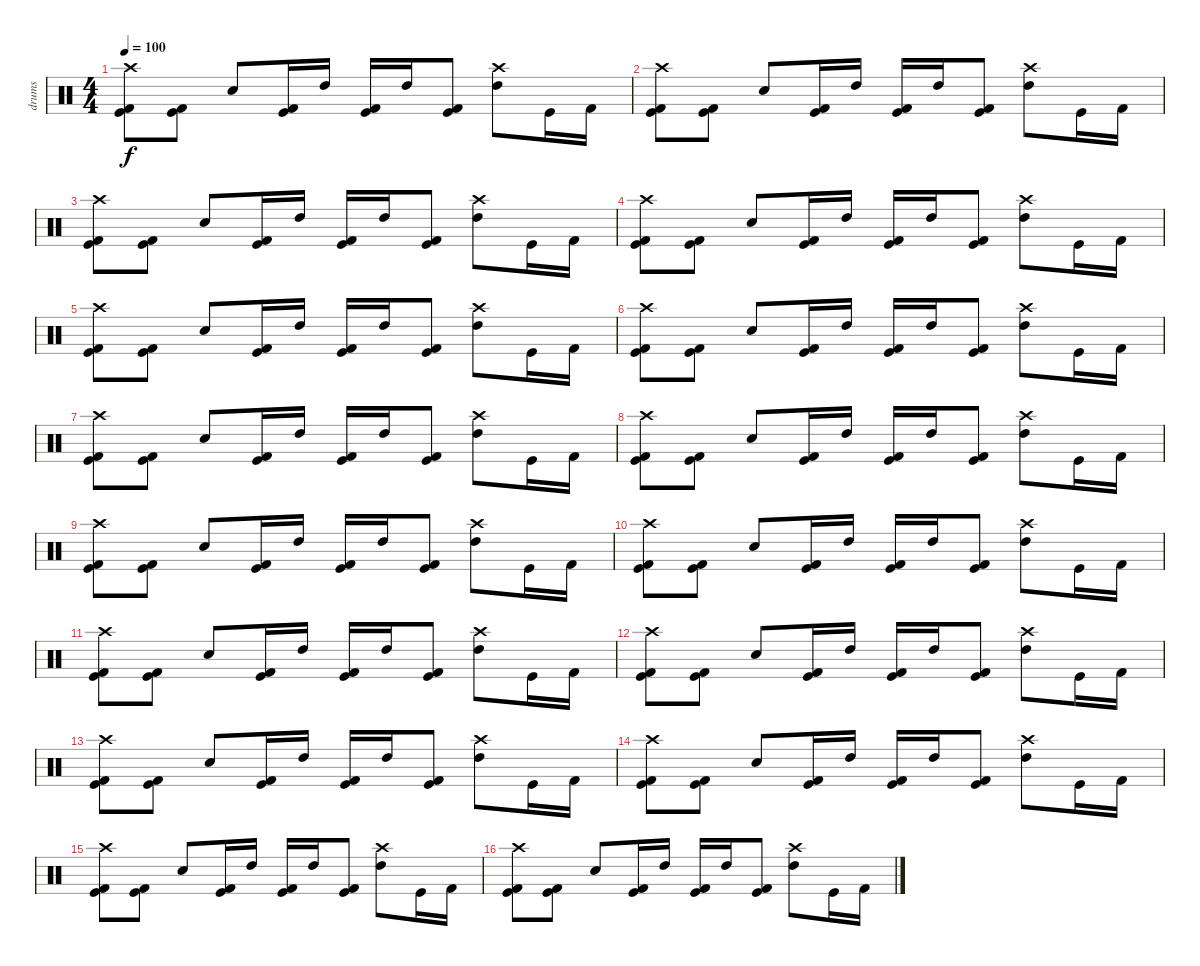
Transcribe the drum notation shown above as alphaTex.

\track ("drums" "drums") {instrument percussion}
\staff {score}
\articulation defaults
\ts (4 4)
\tempo 100
\clef neutral
\ks c
("Kick (hit) 2" "Kick (hit)" "Crash high (hit)").8{dy f} ("Kick (hit) 2" "Kick (hit)").8 "Snare (hit) 2".8 ("Kick (hit) 2" "Kick (hit)").16 "High Tom (hit)".16 ("Kick (hit) 2" "Kick (hit)").16 "High Tom (hit)".16 ("Kick (hit) 2" "Kick (hit)").8 ("High Tom (hit)" "Crash high (hit)").8 "Kick (hit)".16 "Kick (hit) 2".16 |
("Kick (hit) 2" "Kick (hit)" "Crash high (hit)").8 ("Kick (hit) 2" "Kick (hit)").8 "Snare (hit) 2".8 ("Kick (hit) 2" "Kick (hit)").16 "High Tom (hit)".16 ("Kick (hit) 2" "Kick (hit)").16 "High Tom (hit)".16 ("Kick (hit) 2" "Kick (hit)").8 ("High Tom (hit)" "Crash high (hit)").8 "Kick (hit)".16 "Kick (hit) 2".16 |
("Kick (hit) 2" "Kick (hit)" "Crash high (hit)").8 ("Kick (hit) 2" "Kick (hit)").8 "Snare (hit) 2".8 ("Kick (hit) 2" "Kick (hit)").16 "High Tom (hit)".16 ("Kick (hit) 2" "Kick (hit)").16 "High Tom (hit)".16 ("Kick (hit) 2" "Kick (hit)").8 ("High Tom (hit)" "Crash high (hit)").8 "Kick (hit)".16 "Kick (hit) 2".16 |
("Kick (hit) 2" "Kick (hit)" "Crash high (hit)").8 ("Kick (hit) 2" "Kick (hit)").8 "Snare (hit) 2".8 ("Kick (hit) 2" "Kick (hit)").16 "High Tom (hit)".16 ("Kick (hit) 2" "Kick (hit)").16 "High Tom (hit)".16 ("Kick (hit) 2" "Kick (hit)").8 ("High Tom (hit)" "Crash high (hit)").8 "Kick (hit)".16 "Kick (hit) 2".16 |
("Kick (hit) 2" "Kick (hit)" "Crash high (hit)").8 ("Kick (hit) 2" "Kick (hit)").8 "Snare (hit) 2".8 ("Kick (hit) 2" "Kick (hit)").16 "High Tom (hit)".16 ("Kick (hit) 2" "Kick (hit)").16 "High Tom (hit)".16 ("Kick (hit) 2" "Kick (hit)").8 ("High Tom (hit)" "Crash high (hit)").8 "Kick (hit)".16 "Kick (hit) 2".16 |
("Kick (hit) 2" "Kick (hit)" "Crash high (hit)").8 ("Kick (hit) 2" "Kick (hit)").8 "Snare (hit) 2".8 ("Kick (hit) 2" "Kick (hit)").16 "High Tom (hit)".16 ("Kick (hit) 2" "Kick (hit)").16 "High Tom (hit)".16 ("Kick (hit) 2" "Kick (hit)").8 ("High Tom (hit)" "Crash high (hit)").8 "Kick (hit)".16 "Kick (hit) 2".16 |
("Kick (hit) 2" "Kick (hit)" "Crash high (hit)").8 ("Kick (hit) 2" "Kick (hit)").8 "Snare (hit) 2".8 ("Kick (hit) 2" "Kick (hit)").16 "High Tom (hit)".16 ("Kick (hit) 2" "Kick (hit)").16 "High Tom (hit)".16 ("Kick (hit) 2" "Kick (hit)").8 ("High Tom (hit)" "Crash high (hit)").8 "Kick (hit)".16 "Kick (hit) 2".16 |
("Kick (hit) 2" "Kick (hit)" "Crash high (hit)").8 ("Kick (hit) 2" "Kick (hit)").8 "Snare (hit) 2".8 ("Kick (hit) 2" "Kick (hit)").16 "High Tom (hit)".16 ("Kick (hit) 2" "Kick (hit)").16 "High Tom (hit)".16 ("Kick (hit) 2" "Kick (hit)").8 ("High Tom (hit)" "Crash high (hit)").8 "Kick (hit)".16 "Kick (hit) 2".16 |
("Kick (hit) 2" "Kick (hit)" "Crash high (hit)").8 ("Kick (hit) 2" "Kick (hit)").8 "Snare (hit) 2".8 ("Kick (hit) 2" "Kick (hit)").16 "High Tom (hit)".16 ("Kick (hit) 2" "Kick (hit)").16 "High Tom (hit)".16 ("Kick (hit) 2" "Kick (hit)").8 ("High Tom (hit)" "Crash high (hit)").8 "Kick (hit)".16 "Kick (hit) 2".16 |
("Kick (hit) 2" "Kick (hit)" "Crash high (hit)").8 ("Kick (hit) 2" "Kick (hit)").8 "Snare (hit) 2".8 ("Kick (hit) 2" "Kick (hit)").16 "High Tom (hit)".16 ("Kick (hit) 2" "Kick (hit)").16 "High Tom (hit)".16 ("Kick (hit) 2" "Kick (hit)").8 ("High Tom (hit)" "Crash high (hit)").8 "Kick (hit)".16 "Kick (hit) 2".16 |
("Kick (hit) 2" "Kick (hit)" "Crash high (hit)").8 ("Kick (hit) 2" "Kick (hit)").8 "Snare (hit) 2".8 ("Kick (hit) 2" "Kick (hit)").16 "High Tom (hit)".16 ("Kick (hit) 2" "Kick (hit)").16 "High Tom (hit)".16 ("Kick (hit) 2" "Kick (hit)").8 ("High Tom (hit)" "Crash high (hit)").8 "Kick (hit)".16 "Kick (hit) 2".16 |
("Kick (hit) 2" "Kick (hit)" "Crash high (hit)").8 ("Kick (hit) 2" "Kick (hit)").8 "Snare (hit) 2".8 ("Kick (hit) 2" "Kick (hit)").16 "High Tom (hit)".16 ("Kick (hit) 2" "Kick (hit)").16 "High Tom (hit)".16 ("Kick (hit) 2" "Kick (hit)").8 ("High Tom (hit)" "Crash high (hit)").8 "Kick (hit)".16 "Kick (hit) 2".16 |
("Kick (hit) 2" "Kick (hit)" "Crash high (hit)").8 ("Kick (hit) 2" "Kick (hit)").8 "Snare (hit) 2".8 ("Kick (hit) 2" "Kick (hit)").16 "High Tom (hit)".16 ("Kick (hit) 2" "Kick (hit)").16 "High Tom (hit)".16 ("Kick (hit) 2" "Kick (hit)").8 ("High Tom (hit)" "Crash high (hit)").8 "Kick (hit)".16 "Kick (hit) 2".16 |
("Kick (hit) 2" "Kick (hit)" "Crash high (hit)").8 ("Kick (hit) 2" "Kick (hit)").8 "Snare (hit) 2".8 ("Kick (hit) 2" "Kick (hit)").16 "High Tom (hit)".16 ("Kick (hit) 2" "Kick (hit)").16 "High Tom (hit)".16 ("Kick (hit) 2" "Kick (hit)").8 ("High Tom (hit)" "Crash high (hit)").8 "Kick (hit)".16 "Kick (hit) 2".16 |
("Kick (hit) 2" "Kick (hit)" "Crash high (hit)").8 ("Kick (hit) 2" "Kick (hit)").8 "Snare (hit) 2".8 ("Kick (hit) 2" "Kick (hit)").16 "High Tom (hit)".16 ("Kick (hit) 2" "Kick (hit)").16 "High Tom (hit)".16 ("Kick (hit) 2" "Kick (hit)").8 ("High Tom (hit)" "Crash high (hit)").8 "Kick (hit)".16 "Kick (hit) 2".16 |
("Kick (hit) 2" "Kick (hit)" "Crash high (hit)").8 ("Kick (hit) 2" "Kick (hit)").8 "Snare (hit) 2".8 ("Kick (hit) 2" "Kick (hit)").16 "High Tom (hit)".16 ("Kick (hit) 2" "Kick (hit)").16 "High Tom (hit)".16 ("Kick (hit) 2" "Kick (hit)").8 ("High Tom (hit)" "Crash high (hit)").8 "Kick (hit)".16 "Kick (hit) 2".16
